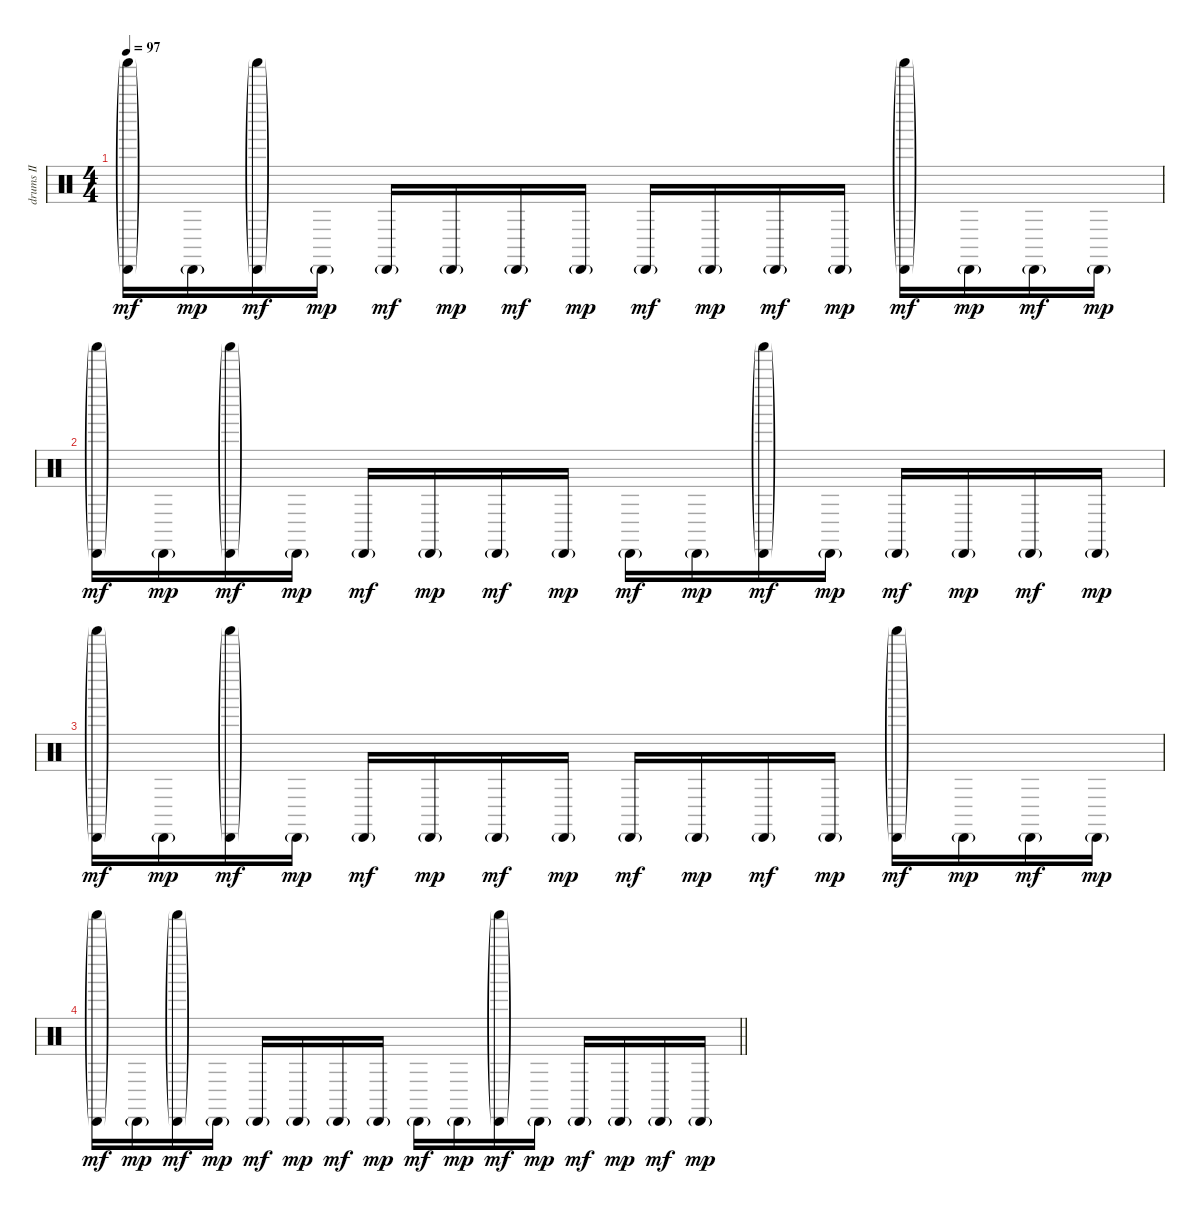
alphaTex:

\track ("drums II" "drums II") {instrument percussion}
\staff {score}
\articulation defaults
\ts (4 4)
\tempo 97
\clef neutral
\ks c
("Shaker (hit)"{g} "Cabasa (hit)"{g}).16{dy mf} "Cabasa (hit)"{g}.16{dy mp} ("Shaker (hit)"{g} "Cabasa (hit)"{g}).16{dy mf} "Cabasa (hit)"{g}.16{dy mp} "Cabasa (hit)"{g}.16{dy mf} "Cabasa (hit)"{g}.16{dy mp} "Cabasa (hit)"{g}.16{dy mf} "Cabasa (hit)"{g}.16{dy mp} "Cabasa (hit)"{g}.16{dy mf} "Cabasa (hit)"{g}.16{dy mp} "Cabasa (hit)"{g}.16{dy mf} "Cabasa (hit)"{g}.16{dy mp} ("Shaker (hit)"{g} "Cabasa (hit)"{g}).16{dy mf} "Cabasa (hit)"{g}.16{dy mp} "Cabasa (hit)"{g}.16{dy mf} "Cabasa (hit)"{g}.16{dy mp} |
("Shaker (hit)"{g} "Cabasa (hit)"{g}).16{dy mf} "Cabasa (hit)"{g}.16{dy mp} ("Shaker (hit)"{g} "Cabasa (hit)"{g}).16{dy mf} "Cabasa (hit)"{g}.16{dy mp} "Cabasa (hit)"{g}.16{dy mf} "Cabasa (hit)"{g}.16{dy mp} "Cabasa (hit)"{g}.16{dy mf} "Cabasa (hit)"{g}.16{dy mp} "Cabasa (hit)"{g}.16{dy mf} "Cabasa (hit)"{g}.16{dy mp} ("Shaker (hit)"{g} "Cabasa (hit)"{g}).16{dy mf} "Cabasa (hit)"{g}.16{dy mp} "Cabasa (hit)"{g}.16{dy mf} "Cabasa (hit)"{g}.16{dy mp} "Cabasa (hit)"{g}.16{dy mf} "Cabasa (hit)"{g}.16{dy mp} |
("Shaker (hit)"{g} "Cabasa (hit)"{g}).16{dy mf} "Cabasa (hit)"{g}.16{dy mp} ("Shaker (hit)"{g} "Cabasa (hit)"{g}).16{dy mf} "Cabasa (hit)"{g}.16{dy mp} "Cabasa (hit)"{g}.16{dy mf} "Cabasa (hit)"{g}.16{dy mp} "Cabasa (hit)"{g}.16{dy mf} "Cabasa (hit)"{g}.16{dy mp} "Cabasa (hit)"{g}.16{dy mf} "Cabasa (hit)"{g}.16{dy mp} "Cabasa (hit)"{g}.16{dy mf} "Cabasa (hit)"{g}.16{dy mp} ("Shaker (hit)"{g} "Cabasa (hit)"{g}).16{dy mf} "Cabasa (hit)"{g}.16{dy mp} "Cabasa (hit)"{g}.16{dy mf} "Cabasa (hit)"{g}.16{dy mp} |
\barLineRight lightlight
("Shaker (hit)"{g} "Cabasa (hit)"{g}).16{dy mf} "Cabasa (hit)"{g}.16{dy mp} ("Shaker (hit)"{g} "Cabasa (hit)"{g}).16{dy mf} "Cabasa (hit)"{g}.16{dy mp} "Cabasa (hit)"{g}.16{dy mf} "Cabasa (hit)"{g}.16{dy mp} "Cabasa (hit)"{g}.16{dy mf} "Cabasa (hit)"{g}.16{dy mp} "Cabasa (hit)"{g}.16{dy mf} "Cabasa (hit)"{g}.16{dy mp} ("Shaker (hit)"{g} "Cabasa (hit)"{g}).16{dy mf} "Cabasa (hit)"{g}.16{dy mp} "Cabasa (hit)"{g}.16{dy mf} "Cabasa (hit)"{g}.16{dy mp} "Cabasa (hit)"{g}.16{dy mf} "Cabasa (hit)"{g}.16{dy mp}
